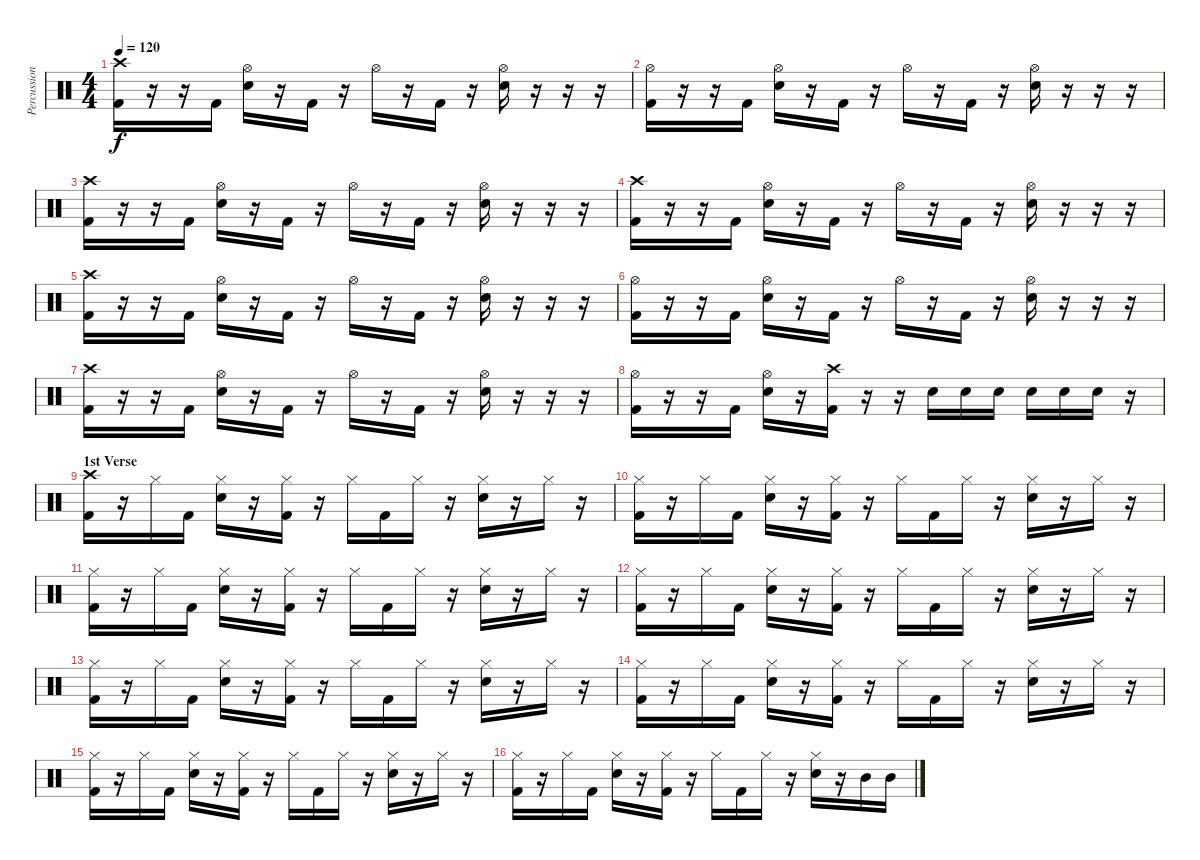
\track ("Percussion" "Percussion") {instrument percussion}
\staff {score}
\articulation defaults
\ts (4 4)
\tempo 120
\clef neutral
\ks c
("Crash high (hit)" "Kick (hit) 2").16{dy f} r.16 r.16 "Kick (hit) 2".16 ("Hi-Hat (open)" "Snare (hit) 2").16 r.16 "Kick (hit) 2".16 r.16 "Hi-Hat (open)".16 r.16 "Kick (hit) 2".16 r.16 ("Hi-Hat (open)" "Snare (hit) 2").16 r.16 r.16 r.16 |
("Hi-Hat (open)" "Kick (hit) 2").16 r.16 r.16 "Kick (hit) 2".16 ("Hi-Hat (open)" "Snare (hit) 2").16 r.16 "Kick (hit) 2".16 r.16 "Hi-Hat (open)".16 r.16 "Kick (hit) 2".16 r.16 ("Hi-Hat (open)" "Snare (hit) 2").16 r.16 r.16 r.16 |
("Crash high (hit)" "Kick (hit) 2").16 r.16 r.16 "Kick (hit) 2".16 ("Hi-Hat (open)" "Snare (hit) 2").16 r.16 "Kick (hit) 2".16 r.16 "Hi-Hat (open)".16 r.16 "Kick (hit) 2".16 r.16 ("Hi-Hat (open)" "Snare (hit) 2").16 r.16 r.16 r.16 |
("Crash high (hit)" "Kick (hit) 2").16 r.16 r.16 "Kick (hit) 2".16 ("Hi-Hat (open)" "Snare (hit) 2").16 r.16 "Kick (hit) 2".16 r.16 "Hi-Hat (open)".16 r.16 "Kick (hit) 2".16 r.16 ("Hi-Hat (open)" "Snare (hit) 2").16 r.16 r.16 r.16 |
("Crash high (hit)" "Kick (hit) 2").16 r.16 r.16 "Kick (hit) 2".16 ("Hi-Hat (open)" "Snare (hit) 2").16 r.16 "Kick (hit) 2".16 r.16 "Hi-Hat (open)".16 r.16 "Kick (hit) 2".16 r.16 ("Hi-Hat (open)" "Snare (hit) 2").16 r.16 r.16 r.16 |
("Hi-Hat (open)" "Kick (hit) 2").16 r.16 r.16 "Kick (hit) 2".16 ("Hi-Hat (open)" "Snare (hit) 2").16 r.16 "Kick (hit) 2".16 r.16 "Hi-Hat (open)".16 r.16 "Kick (hit) 2".16 r.16 ("Hi-Hat (open)" "Snare (hit) 2").16 r.16 r.16 r.16 |
("Crash high (hit)" "Kick (hit) 2").16 r.16 r.16 "Kick (hit) 2".16 ("Hi-Hat (open)" "Snare (hit) 2").16 r.16 "Kick (hit) 2".16 r.16 "Hi-Hat (open)".16 r.16 "Kick (hit) 2".16 r.16 ("Hi-Hat (open)" "Snare (hit) 2").16 r.16 r.16 r.16 |
("Hi-Hat (open)" "Kick (hit) 2").16 r.16 r.16 "Kick (hit) 2".16 ("Hi-Hat (open)" "Snare (hit) 2").16 r.16 ("Crash high (hit)" "Kick (hit) 2").16 r.16 r.16 "Snare (hit) 2".16 "Snare (hit) 2".16 "Snare (hit) 2".16 "Snare (hit) 2".16 "Snare (hit) 2".16 "Snare (hit) 2".16 r.16 |
\section ("" "1st Verse")
("Crash high (hit)" "Kick (hit) 2").16 r.16 "Hi-Hat (closed)".16 "Kick (hit) 2".16 ("Hi-Hat (closed)" "Snare (hit) 2").16 r.16 ("Hi-Hat (closed)" "Kick (hit) 2").16 r.16 "Hi-Hat (closed)".16 "Kick (hit) 2".16 "Hi-Hat (closed)".16 r.16 ("Hi-Hat (closed)" "Snare (hit) 2").16 r.16 "Hi-Hat (closed)".16 r.16 |
("Hi-Hat (closed)" "Kick (hit) 2").16 r.16 "Hi-Hat (closed)".16 "Kick (hit) 2".16 ("Hi-Hat (closed)" "Snare (hit) 2").16 r.16 ("Hi-Hat (closed)" "Kick (hit) 2").16 r.16 "Hi-Hat (closed)".16 "Kick (hit) 2".16 "Hi-Hat (closed)".16 r.16 ("Hi-Hat (closed)" "Snare (hit) 2").16 r.16 "Hi-Hat (closed)".16 r.16 |
("Hi-Hat (closed)" "Kick (hit) 2").16 r.16 "Hi-Hat (closed)".16 "Kick (hit) 2".16 ("Hi-Hat (closed)" "Snare (hit) 2").16 r.16 ("Hi-Hat (closed)" "Kick (hit) 2").16 r.16 "Hi-Hat (closed)".16 "Kick (hit) 2".16 "Hi-Hat (closed)".16 r.16 ("Hi-Hat (closed)" "Snare (hit) 2").16 r.16 "Hi-Hat (closed)".16 r.16 |
("Hi-Hat (closed)" "Kick (hit) 2").16 r.16 "Hi-Hat (closed)".16 "Kick (hit) 2".16 ("Hi-Hat (closed)" "Snare (hit) 2").16 r.16 ("Hi-Hat (closed)" "Kick (hit) 2").16 r.16 "Hi-Hat (closed)".16 "Kick (hit) 2".16 "Hi-Hat (closed)".16 r.16 ("Hi-Hat (closed)" "Snare (hit) 2").16 r.16 "Hi-Hat (closed)".16 r.16 |
("Hi-Hat (closed)" "Kick (hit) 2").16 r.16 "Hi-Hat (closed)".16 "Kick (hit) 2".16 ("Hi-Hat (closed)" "Snare (hit) 2").16 r.16 ("Hi-Hat (closed)" "Kick (hit) 2").16 r.16 "Hi-Hat (closed)".16 "Kick (hit) 2".16 "Hi-Hat (closed)".16 r.16 ("Hi-Hat (closed)" "Snare (hit) 2").16 r.16 "Hi-Hat (closed)".16 r.16 |
("Hi-Hat (closed)" "Kick (hit) 2").16 r.16 "Hi-Hat (closed)".16 "Kick (hit) 2".16 ("Hi-Hat (closed)" "Snare (hit) 2").16 r.16 ("Hi-Hat (closed)" "Kick (hit) 2").16 r.16 "Hi-Hat (closed)".16 "Kick (hit) 2".16 "Hi-Hat (closed)".16 r.16 ("Hi-Hat (closed)" "Snare (hit) 2").16 r.16 "Hi-Hat (closed)".16 r.16 |
("Hi-Hat (closed)" "Kick (hit) 2").16 r.16 "Hi-Hat (closed)".16 "Kick (hit) 2".16 ("Hi-Hat (closed)" "Snare (hit) 2").16 r.16 ("Hi-Hat (closed)" "Kick (hit) 2").16 r.16 "Hi-Hat (closed)".16 "Kick (hit) 2".16 "Hi-Hat (closed)".16 r.16 ("Hi-Hat (closed)" "Snare (hit) 2").16 r.16 "Hi-Hat (closed)".16 r.16 |
("Hi-Hat (closed)" "Kick (hit) 2").16 r.16 "Hi-Hat (closed)".16 "Kick (hit) 2".16 ("Hi-Hat (closed)" "Snare (hit) 2").16 r.16 ("Hi-Hat (closed)" "Kick (hit) 2").16 r.16 "Hi-Hat (closed)".16 "Kick (hit) 2".16 "Hi-Hat (closed)".16 r.16 ("Hi-Hat (closed)" "Snare (hit) 2").16 r.16 "Mid Tom (hit)".16 "Mid Tom (hit)".16
